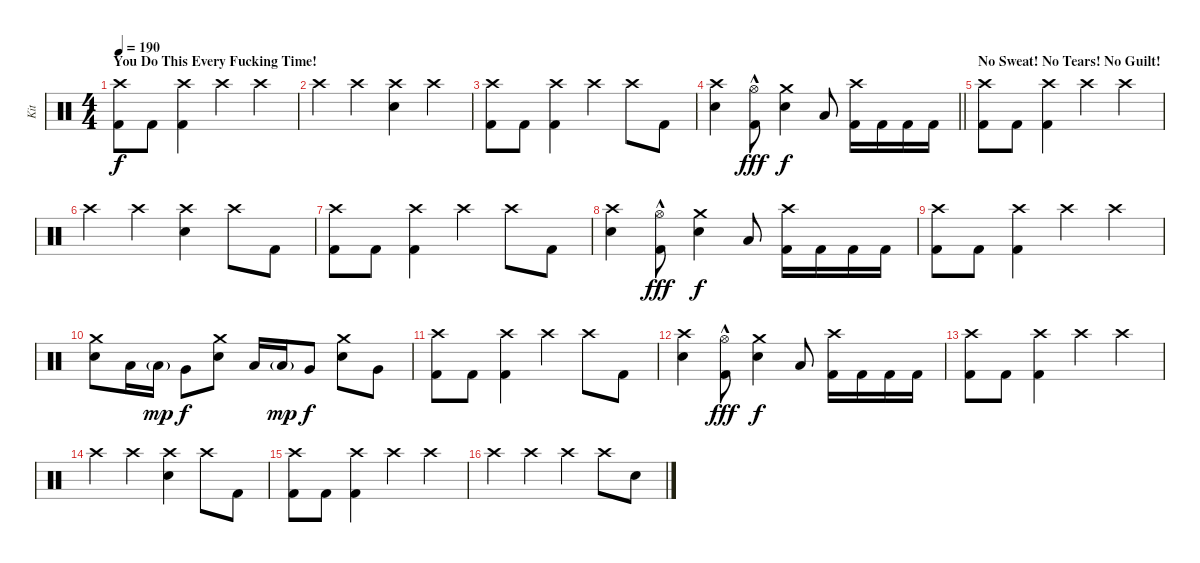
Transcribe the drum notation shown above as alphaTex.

\track ("Kit" "Kit") {instrument percussion}
\staff {score}
\articulation defaults
\ts (4 4)
\section ("" "You Do This Every Fucking Time!")
\tempo 190
\clef neutral
\ks c
("Crash high (hit)" "Kick (hit) 2").8{dy f} "Kick (hit) 2".8 ("Crash high (hit)" "Kick (hit) 2").4 "Crash high (hit)".4 "Crash high (hit)".4 |
"Crash high (hit)".4 "Crash high (hit)".4 ("Crash high (hit)" "Electric Snare (hit)").4 "Crash high (hit)".4 |
("Crash high (hit)" "Kick (hit) 2").8 "Kick (hit) 2".8 ("Crash high (hit)" "Kick (hit) 2").4 "Crash high (hit)".4 "Crash high (hit)".8 "Kick (hit) 2".8 |
\barLineRight lightlight
("Crash high (hit)" "Electric Snare (hit)").4 ("Hi-Hat (open)" "Kick (hit) 2"{hac}).8{dy fff} ("Crash medium (hit)" "Electric Snare (hit)").4{dy f} "Low Tom (hit)".8 ("Crash high (hit)" "Kick (hit) 2").16 "Kick (hit) 2".16 "Kick (hit) 2".16 "Kick (hit) 2".16 |
\section ("" "No Sweat! No Tears! No Guilt!")
("Crash high (hit)" "Kick (hit) 2").8 "Kick (hit) 2".8 ("Crash high (hit)" "Kick (hit) 2").4 "Crash high (hit)".4 "Crash high (hit)".4 |
"Crash high (hit)".4 "Crash high (hit)".4 ("Crash high (hit)" "Electric Snare (hit)").4 "Crash high (hit)".8 "Kick (hit) 2".8 |
("Crash high (hit)" "Kick (hit) 2").8 "Kick (hit) 2".8 ("Crash high (hit)" "Kick (hit) 2").4 "Crash high (hit)".4 "Crash high (hit)".8 "Kick (hit) 2".8 |
("Crash high (hit)" "Electric Snare (hit)").4 ("Hi-Hat (open)" "Kick (hit) 2"{hac}).8{dy fff} ("Crash medium (hit)" "Electric Snare (hit)").4{dy f} "Low Tom (hit)".8 ("Crash high (hit)" "Kick (hit) 2").16 "Kick (hit) 2".16 "Kick (hit) 2".16 "Kick (hit) 2".16 |
("Crash high (hit)" "Kick (hit) 2").8 "Kick (hit) 2".8 ("Crash high (hit)" "Kick (hit) 2").4 "Crash high (hit)".4 "Crash high (hit)".4 |
("Crash medium (hit)" "Electric Snare (hit)").8 "Low Tom (hit)".16 "Low Tom (hit)"{g}.16{dy mp} "Very Low Tom (hit)".8{dy f} ("Crash medium (hit)" "Electric Snare (hit)").8 "Low Tom (hit)".16 "Low Tom (hit)"{g}.16{dy mp} "Very Low Tom (hit)".8{dy f} ("Crash medium (hit)" "Electric Snare (hit)").8 "Very Low Tom (hit)".8 |
("Crash high (hit)" "Kick (hit) 2").8 "Kick (hit) 2".8 ("Crash high (hit)" "Kick (hit) 2").4 "Crash high (hit)".4 "Crash high (hit)".8 "Kick (hit) 2".8 |
("Crash high (hit)" "Electric Snare (hit)").4 ("Hi-Hat (open)" "Kick (hit) 2"{hac}).8{dy fff} ("Crash medium (hit)" "Electric Snare (hit)").4{dy f} "Low Tom (hit)".8 ("Crash high (hit)" "Kick (hit) 2").16 "Kick (hit) 2".16 "Kick (hit) 2".16 "Kick (hit) 2".16 |
("Crash high (hit)" "Kick (hit) 2").8 "Kick (hit) 2".8 ("Crash high (hit)" "Kick (hit) 2").4 "Crash high (hit)".4 "Crash high (hit)".4 |
"Crash high (hit)".4 "Crash high (hit)".4 ("Crash high (hit)" "Electric Snare (hit)").4 "Crash high (hit)".8 "Kick (hit) 2".8 |
("Crash high (hit)" "Kick (hit) 2").8 "Kick (hit) 2".8 ("Crash high (hit)" "Kick (hit) 2").4 "Crash high (hit)".4 "Crash high (hit)".4 |
"Crash high (hit)".4 "Crash high (hit)".4 "Crash high (hit)".4 "Crash high (hit)".8 "Electric Snare (hit)".8
